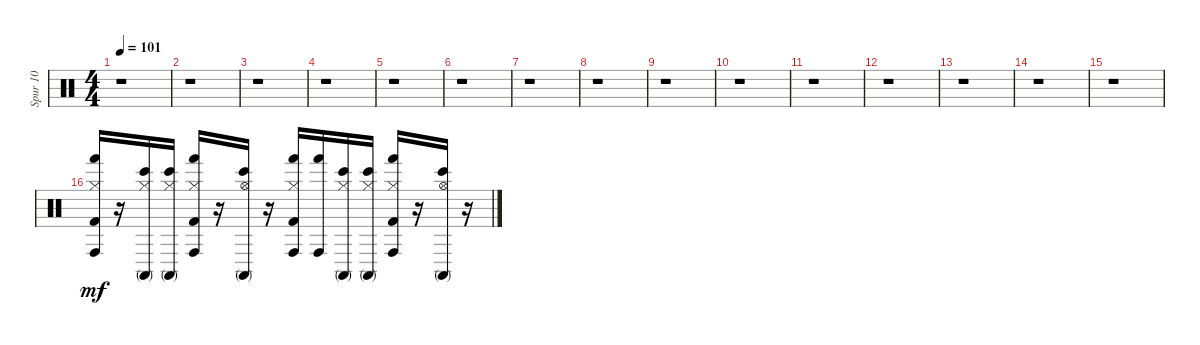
\track ("Spur 10" "Spur 10") {instrument percussion}
\staff {score}
\articulation defaults
\ts (4 4)
\tempo 101
\clef neutral
\ks c
r.1{dy mf} |
r.1 |
r.1 |
r.1 |
r.1 |
r.1 |
r.1 |
r.1 |
r.1 |
r.1 |
r.1 |
r.1 |
r.1 |
r.1 |
r.1 |
("Kick (hit) 2" "Hi-Hat (closed)" "Hand (hit)" "Conga high (hit)").16 r.16 ("Hi-Hat (closed)" "Bongo High (hit)" "Conga high (mute)").16 ("Hi-Hat (closed)" "Bongo High (hit)" "Conga high (mute)").16 ("Kick (hit) 2" "Hi-Hat (closed)" "Hand (hit)" "Conga high (hit)").16 r.16 ("Hi-Hat (open)" "Bongo High (hit)" "Conga high (mute)").16 r.16 ("Kick (hit) 2" "Hi-Hat (closed)" "Hand (hit)" "Conga high (hit)").16 ("Hand (hit)" "Conga high (hit)").16 ("Hi-Hat (closed)" "Bongo High (hit)" "Conga high (mute)").16 ("Hi-Hat (closed)" "Bongo High (hit)" "Conga high (mute)").16 ("Kick (hit) 2" "Hi-Hat (closed)" "Hand (hit)" "Conga high (hit)").16 r.16 ("Hi-Hat (open)" "Bongo High (hit)" "Conga high (mute)").16 r.16
